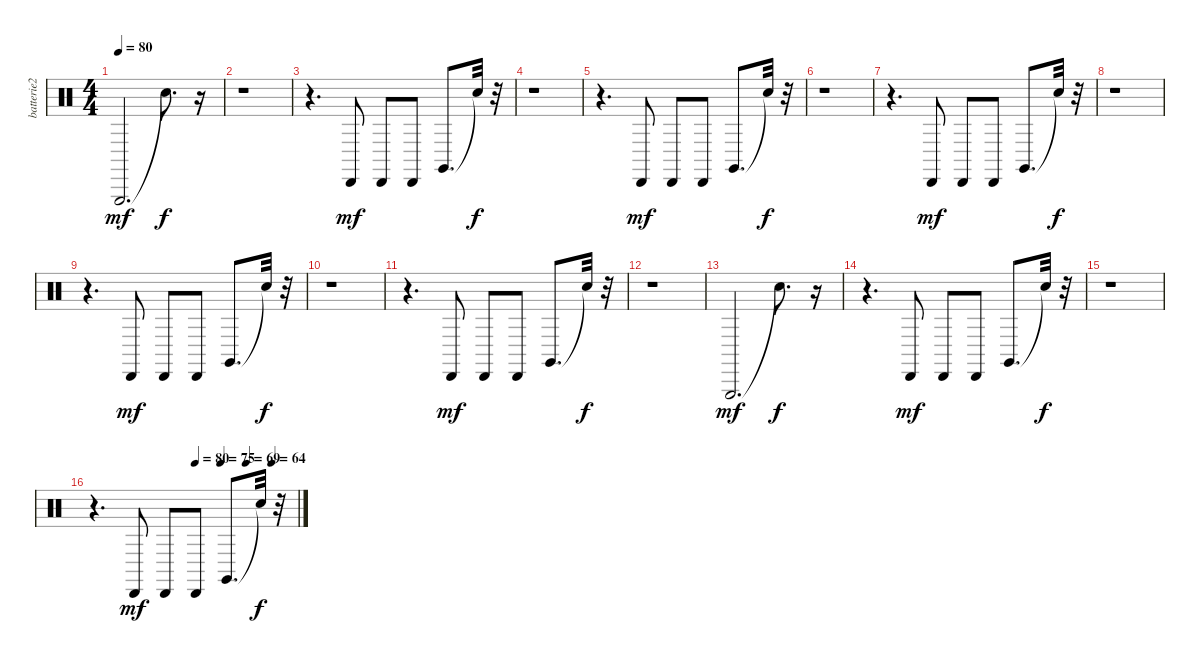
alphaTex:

\track ("batterie2" "batterie2") {instrument percussion}
\staff {score}
\articulation defaults
\ts (4 4)
\tempo 80
\clef neutral
\ks c "Triangle (hit)".2{d dy mf} "Snare (hit)"{t}.8{d dy f}
r.16 |
r.1 |
r.4{d} "Cabasa (hit)".8{dy mf} "Cabasa (hit)".8 "Cabasa (hit)".8 "Claves (hit)".8{d} "Snare (hit)"{t}.32{dy f} r.32 |
r.1 |
r.4{d} "Cabasa (hit)".8{dy mf} "Cabasa (hit)".8 "Cabasa (hit)".8 "Claves (hit)".8{d} "Snare (hit)"{t}.32{dy f} r.32 |
r.1 |
r.4{d} "Cabasa (hit)".8{dy mf} "Cabasa (hit)".8 "Cabasa (hit)".8 "Claves (hit)".8{d} "Snare (hit)"{t}.32{dy f} r.32 |
r.1 |
r.4{d} "Cabasa (hit)".8{dy mf} "Cabasa (hit)".8 "Cabasa (hit)".8 "Claves (hit)".8{d} "Snare (hit)"{t}.32{dy f} r.32 |
r.1 |
r.4{d} "Cabasa (hit)".8{dy mf} "Cabasa (hit)".8 "Cabasa (hit)".8 "Claves (hit)".8{d} "Snare (hit)"{t}.32{dy f} r.32 |
r.1 |
"Triangle (hit)".2{d dy mf} "Snare (hit)"{t}.8{d dy f} r.16 |
r.4{d} "Cabasa (hit)".8{dy mf} "Cabasa (hit)".8 "Cabasa (hit)".8 "Claves (hit)".8{d} "Snare (hit)"{t}.32{dy f} r.32 |
r.1 |
\tempo (80 0.5)
\tempo (75 0.625)
\tempo (69 0.75)
\tempo (64 0.875)
r.4{d} "Cabasa (hit)".8{dy mf} "Cabasa (hit)".8 "Cabasa (hit)".8 "Claves (hit)".8{d} "Snare (hit)"{t}.32{dy f} r.32
